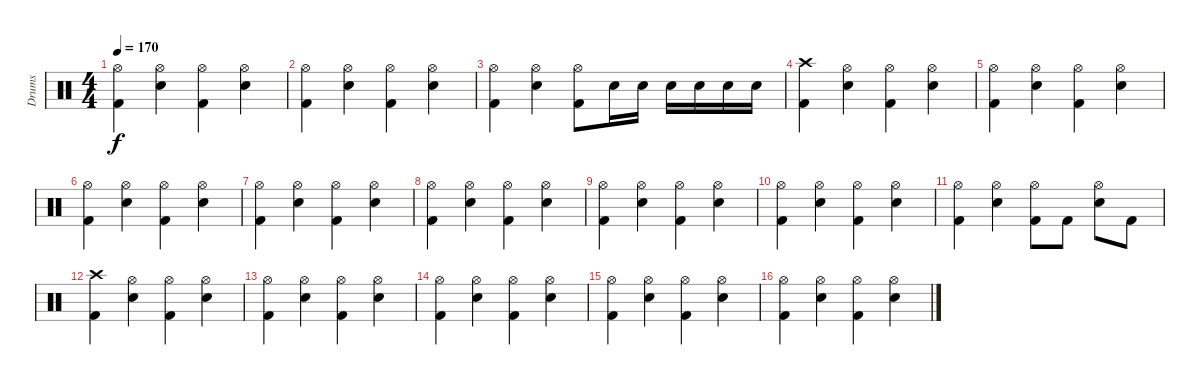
\track ("Drums" "Drums") {instrument percussion}
\staff {score}
\articulation defaults
\ts (4 4)
\tempo 170
\clef neutral
\ks c
("Hi-Hat (open)" "Kick (hit) 2").4{dy f} ("Hi-Hat (open)" "Snare (hit) 2").4 ("Hi-Hat (open)" "Kick (hit) 2").4 ("Hi-Hat (open)" "Snare (hit) 2").4 |
("Hi-Hat (open)" "Kick (hit) 2").4 ("Hi-Hat (open)" "Snare (hit) 2").4 ("Hi-Hat (open)" "Kick (hit) 2").4 ("Hi-Hat (open)" "Snare (hit) 2").4 |
("Hi-Hat (open)" "Kick (hit) 2").4 ("Hi-Hat (open)" "Snare (hit) 2").4 ("Hi-Hat (open)" "Kick (hit) 2").8 "Snare (hit) 2".16 "Snare (hit) 2".16 "Snare (hit) 2".16 "Snare (hit) 2".16 "Snare (hit) 2".16 "Snare (hit) 2".16 |
("Crash high (hit)" "Kick (hit) 2").4 ("Hi-Hat (open)" "Snare (hit) 2").4 ("Hi-Hat (open)" "Kick (hit) 2").4 ("Hi-Hat (open)" "Snare (hit) 2").4 |
("Hi-Hat (open)" "Kick (hit) 2").4 ("Hi-Hat (open)" "Snare (hit) 2").4 ("Hi-Hat (open)" "Kick (hit) 2").4 ("Hi-Hat (open)" "Snare (hit) 2").4 |
("Hi-Hat (open)" "Kick (hit) 2").4 ("Hi-Hat (open)" "Snare (hit) 2").4 ("Hi-Hat (open)" "Kick (hit) 2").4 ("Hi-Hat (open)" "Snare (hit) 2").4 |
("Hi-Hat (open)" "Kick (hit) 2").4 ("Hi-Hat (open)" "Snare (hit) 2").4 ("Hi-Hat (open)" "Kick (hit) 2").4 ("Hi-Hat (open)" "Snare (hit) 2").4 |
("Hi-Hat (open)" "Kick (hit) 2").4 ("Hi-Hat (open)" "Snare (hit) 2").4 ("Hi-Hat (open)" "Kick (hit) 2").4 ("Hi-Hat (open)" "Snare (hit) 2").4 |
("Hi-Hat (open)" "Kick (hit) 2").4 ("Hi-Hat (open)" "Snare (hit) 2").4 ("Hi-Hat (open)" "Kick (hit) 2").4 ("Hi-Hat (open)" "Snare (hit) 2").4 |
("Hi-Hat (open)" "Kick (hit) 2").4 ("Hi-Hat (open)" "Snare (hit) 2").4 ("Hi-Hat (open)" "Kick (hit) 2").4 ("Hi-Hat (open)" "Snare (hit) 2").4 |
("Hi-Hat (open)" "Kick (hit) 2").4 ("Hi-Hat (open)" "Snare (hit) 2").4 ("Hi-Hat (open)" "Kick (hit) 2").8 "Kick (hit) 2".8 ("Hi-Hat (open)" "Snare (hit) 2").8 "Kick (hit) 2".8 |
("Crash high (hit)" "Kick (hit) 2").4 ("Hi-Hat (open)" "Snare (hit) 2").4 ("Hi-Hat (open)" "Kick (hit) 2").4 ("Hi-Hat (open)" "Snare (hit) 2").4 |
("Hi-Hat (open)" "Kick (hit) 2").4 ("Hi-Hat (open)" "Snare (hit) 2").4 ("Hi-Hat (open)" "Kick (hit) 2").4 ("Hi-Hat (open)" "Snare (hit) 2").4 |
("Hi-Hat (open)" "Kick (hit) 2").4 ("Hi-Hat (open)" "Snare (hit) 2").4 ("Hi-Hat (open)" "Kick (hit) 2").4 ("Hi-Hat (open)" "Snare (hit) 2").4 |
("Hi-Hat (open)" "Kick (hit) 2").4 ("Hi-Hat (open)" "Snare (hit) 2").4 ("Hi-Hat (open)" "Kick (hit) 2").4 ("Hi-Hat (open)" "Snare (hit) 2").4 |
("Hi-Hat (open)" "Kick (hit) 2").4 ("Hi-Hat (open)" "Snare (hit) 2").4 ("Hi-Hat (open)" "Kick (hit) 2").4 ("Hi-Hat (open)" "Snare (hit) 2").4
